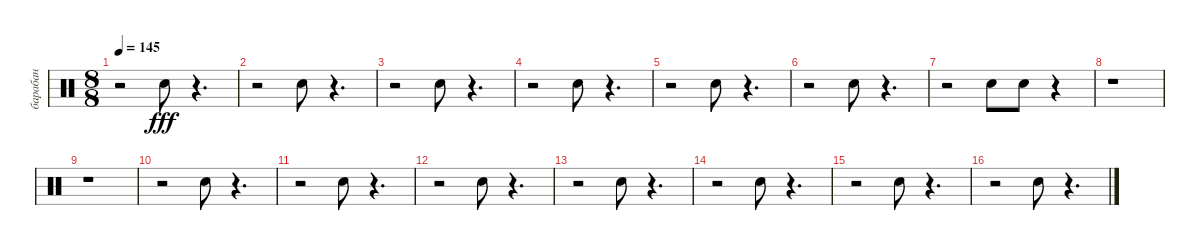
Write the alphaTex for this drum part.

\track ("барабан" "барабан") {instrument percussion}
\staff {score}
\articulation defaults
\ts (8 8)
\tempo 145
\clef neutral
\ks c
r.2{dy fff} "Snare (hit) 2".8 r.4{d} |
r.2 "Snare (hit) 2".8 r.4{d} |
r.2 "Snare (hit) 2".8 r.4{d} |
r.2 "Snare (hit) 2".8 r.4{d} |
r.2 "Snare (hit) 2".8 r.4{d} |
r.2 "Snare (hit) 2".8 r.4{d} |
r.2 "Snare (hit) 2".8 "Snare (hit) 2".8 r.4 |
r.1 |
r.1 |
r.2 "Snare (hit) 2".8 r.4{d} |
r.2 "Snare (hit) 2".8 r.4{d} |
r.2 "Snare (hit) 2".8 r.4{d} |
r.2 "Snare (hit) 2".8 r.4{d} |
r.2 "Snare (hit) 2".8 r.4{d} |
r.2 "Snare (hit) 2".8 r.4{d} |
r.2 "Snare (hit) 2".8 r.4{d}
